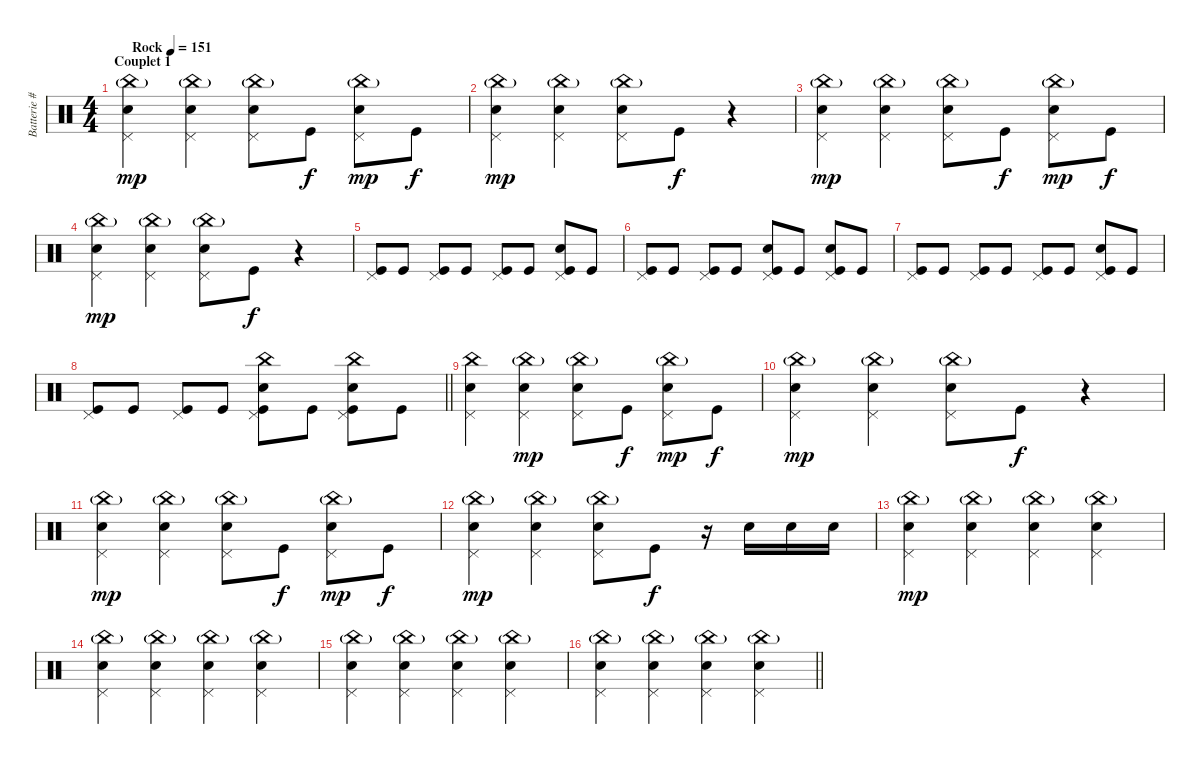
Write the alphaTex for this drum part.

\track ("Batterie # S.Hewitt" "Batterie #") {instrument percussion}
\staff {score}
\articulation defaults
\ts (4 4)
\section ("" "Couplet 1")
\tempo (151 "Rock")
\clef neutral
\ks c
("China (hit)"{g} "Electric Snare (hit)" "Pedal Hi-Hat (hit)").4{dy mp} ("China (hit)"{g} "Electric Snare (hit)" "Pedal Hi-Hat (hit)").4 ("China (hit)"{g} "Electric Snare (hit)" "Pedal Hi-Hat (hit)").8 "Kick (hit)".8{dy f} ("China (hit)"{g} "Electric Snare (hit)" "Pedal Hi-Hat (hit)").8{dy mp} "Kick (hit)".8{dy f} |
("China (hit)"{g} "Electric Snare (hit)" "Pedal Hi-Hat (hit)").4{dy mp} ("China (hit)"{g} "Electric Snare (hit)" "Pedal Hi-Hat (hit)").4 ("China (hit)"{g} "Electric Snare (hit)" "Pedal Hi-Hat (hit)").8 "Kick (hit)".8{dy f} r.4 |
("China (hit)"{g} "Electric Snare (hit)" "Pedal Hi-Hat (hit)").4{dy mp} ("China (hit)"{g} "Electric Snare (hit)" "Pedal Hi-Hat (hit)").4 ("China (hit)"{g} "Electric Snare (hit)" "Pedal Hi-Hat (hit)").8 "Kick (hit)".8{dy f} ("China (hit)"{g} "Electric Snare (hit)" "Pedal Hi-Hat (hit)").8{dy mp} "Kick (hit)".8{dy f} |
("China (hit)"{g} "Electric Snare (hit)" "Pedal Hi-Hat (hit)").4{dy mp} ("China (hit)"{g} "Electric Snare (hit)" "Pedal Hi-Hat (hit)").4 ("China (hit)"{g} "Electric Snare (hit)" "Pedal Hi-Hat (hit)").8 "Kick (hit)".8{dy f} r.4 |
("Kick (hit)" "Pedal Hi-Hat (hit)").8 "Kick (hit)".8 ("Kick (hit)" "Pedal Hi-Hat (hit)").8 "Kick (hit)".8 ("Kick (hit)" "Pedal Hi-Hat (hit)").8 "Kick (hit)".8 ("Kick (hit)" "Pedal Hi-Hat (hit)" "Electric Snare (hit)").8 "Kick (hit)".8 |
("Kick (hit)" "Pedal Hi-Hat (hit)").8 "Kick (hit)".8 ("Kick (hit)" "Pedal Hi-Hat (hit)").8 "Kick (hit)".8 ("Kick (hit)" "Pedal Hi-Hat (hit)" "Electric Snare (hit)").8 "Kick (hit)".8 ("Kick (hit)" "Pedal Hi-Hat (hit)" "Electric Snare (hit)").8 "Kick (hit)".8 |
("Kick (hit)" "Pedal Hi-Hat (hit)").8 "Kick (hit)".8 ("Kick (hit)" "Pedal Hi-Hat (hit)").8 "Kick (hit)".8 ("Kick (hit)" "Pedal Hi-Hat (hit)").8 "Kick (hit)".8 ("Kick (hit)" "Pedal Hi-Hat (hit)" "Electric Snare (hit)").8 "Kick (hit)".8 |
\barLineRight lightlight
("Kick (hit)" "Pedal Hi-Hat (hit)").8 "Kick (hit)".8 ("Kick (hit)" "Pedal Hi-Hat (hit)").8 "Kick (hit)".8 ("Kick (hit)" "Pedal Hi-Hat (hit)" "Electric Snare (hit)" "China (hit)").8 "Kick (hit)".8 ("Kick (hit)" "Pedal Hi-Hat (hit)" "Electric Snare (hit)" "China (hit)").8 "Kick (hit)".8 |
("China (hit)" "Electric Snare (hit)" "Pedal Hi-Hat (hit)").4 ("China (hit)"{g} "Electric Snare (hit)" "Pedal Hi-Hat (hit)").4{dy mp} ("China (hit)"{g} "Electric Snare (hit)" "Pedal Hi-Hat (hit)").8 "Kick (hit)".8{dy f} ("China (hit)"{g} "Electric Snare (hit)" "Pedal Hi-Hat (hit)").8{dy mp} "Kick (hit)".8{dy f} |
("China (hit)"{g} "Electric Snare (hit)" "Pedal Hi-Hat (hit)").4{dy mp} ("China (hit)"{g} "Electric Snare (hit)" "Pedal Hi-Hat (hit)").4 ("China (hit)"{g} "Electric Snare (hit)" "Pedal Hi-Hat (hit)").8 "Kick (hit)".8{dy f} r.4 |
("China (hit)"{g} "Electric Snare (hit)" "Pedal Hi-Hat (hit)").4{dy mp} ("China (hit)"{g} "Electric Snare (hit)" "Pedal Hi-Hat (hit)").4 ("China (hit)"{g} "Electric Snare (hit)" "Pedal Hi-Hat (hit)").8 "Kick (hit)".8{dy f} ("China (hit)"{g} "Electric Snare (hit)" "Pedal Hi-Hat (hit)").8{dy mp} "Kick (hit)".8{dy f} |
("China (hit)"{g} "Electric Snare (hit)" "Pedal Hi-Hat (hit)").4{dy mp} ("China (hit)"{g} "Electric Snare (hit)" "Pedal Hi-Hat (hit)").4 ("China (hit)"{g} "Electric Snare (hit)" "Pedal Hi-Hat (hit)").8 "Kick (hit)".8{dy f} r.16 "Electric Snare (hit)".16 "Electric Snare (hit)".16 "Electric Snare (hit)".16 |
("China (hit)"{g} "Electric Snare (hit)" "Pedal Hi-Hat (hit)").4{dy mp} ("China (hit)"{g} "Electric Snare (hit)" "Pedal Hi-Hat (hit)").4 ("China (hit)"{g} "Electric Snare (hit)" "Pedal Hi-Hat (hit)").4 ("China (hit)"{g} "Electric Snare (hit)" "Pedal Hi-Hat (hit)").4 |
("China (hit)"{g} "Electric Snare (hit)" "Pedal Hi-Hat (hit)").4 ("China (hit)"{g} "Electric Snare (hit)" "Pedal Hi-Hat (hit)").4 ("China (hit)"{g} "Electric Snare (hit)" "Pedal Hi-Hat (hit)").4 ("China (hit)"{g} "Electric Snare (hit)" "Pedal Hi-Hat (hit)").4 |
("China (hit)"{g} "Electric Snare (hit)" "Pedal Hi-Hat (hit)").4 ("China (hit)"{g} "Electric Snare (hit)" "Pedal Hi-Hat (hit)").4 ("China (hit)"{g} "Electric Snare (hit)" "Pedal Hi-Hat (hit)").4 ("China (hit)"{g} "Electric Snare (hit)" "Pedal Hi-Hat (hit)").4 |
\barLineRight lightlight
("China (hit)"{g} "Electric Snare (hit)" "Pedal Hi-Hat (hit)").4 ("China (hit)"{g} "Electric Snare (hit)" "Pedal Hi-Hat (hit)").4 ("China (hit)"{g} "Electric Snare (hit)" "Pedal Hi-Hat (hit)").4 ("China (hit)"{g} "Electric Snare (hit)" "Pedal Hi-Hat (hit)").4
